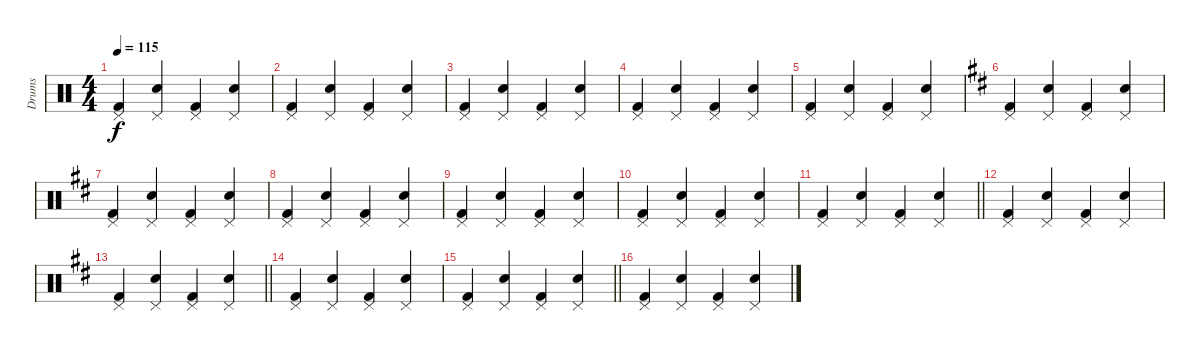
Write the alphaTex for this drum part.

\track ("Drums" "Drums") {instrument percussion}
\staff {score}
\articulation defaults
\ts (4 4)
\tempo 115
\clef neutral
\ks c
("Kick (hit) 2" "Pedal Hi-Hat (hit)").4{dy f} ("Snare (hit) 2" "Pedal Hi-Hat (hit)").4 ("Kick (hit) 2" "Pedal Hi-Hat (hit)").4 ("Snare (hit) 2" "Pedal Hi-Hat (hit)").4 |
("Kick (hit) 2" "Pedal Hi-Hat (hit)").4 ("Snare (hit) 2" "Pedal Hi-Hat (hit)").4 ("Kick (hit) 2" "Pedal Hi-Hat (hit)").4 ("Snare (hit) 2" "Pedal Hi-Hat (hit)").4 |
("Kick (hit) 2" "Pedal Hi-Hat (hit)").4 ("Snare (hit) 2" "Pedal Hi-Hat (hit)").4 ("Kick (hit) 2" "Pedal Hi-Hat (hit)").4 ("Snare (hit) 2" "Pedal Hi-Hat (hit)").4 |
("Kick (hit) 2" "Pedal Hi-Hat (hit)").4 ("Snare (hit) 2" "Pedal Hi-Hat (hit)").4 ("Kick (hit) 2" "Pedal Hi-Hat (hit)").4 ("Snare (hit) 2" "Pedal Hi-Hat (hit)").4 |
("Kick (hit) 2" "Pedal Hi-Hat (hit)").4 ("Snare (hit) 2" "Pedal Hi-Hat (hit)").4 ("Kick (hit) 2" "Pedal Hi-Hat (hit)").4 ("Snare (hit) 2" "Pedal Hi-Hat (hit)").4 |
\ks d
("Kick (hit) 2" "Pedal Hi-Hat (hit)").4 ("Snare (hit) 2" "Pedal Hi-Hat (hit)").4 ("Kick (hit) 2" "Pedal Hi-Hat (hit)").4 ("Snare (hit) 2" "Pedal Hi-Hat (hit)").4 |
("Kick (hit) 2" "Pedal Hi-Hat (hit)").4 ("Snare (hit) 2" "Pedal Hi-Hat (hit)").4 ("Kick (hit) 2" "Pedal Hi-Hat (hit)").4 ("Snare (hit) 2" "Pedal Hi-Hat (hit)").4 |
("Kick (hit) 2" "Pedal Hi-Hat (hit)").4 ("Snare (hit) 2" "Pedal Hi-Hat (hit)").4 ("Kick (hit) 2" "Pedal Hi-Hat (hit)").4 ("Snare (hit) 2" "Pedal Hi-Hat (hit)").4 |
("Kick (hit) 2" "Pedal Hi-Hat (hit)").4 ("Snare (hit) 2" "Pedal Hi-Hat (hit)").4 ("Kick (hit) 2" "Pedal Hi-Hat (hit)").4 ("Snare (hit) 2" "Pedal Hi-Hat (hit)").4 |
("Kick (hit) 2" "Pedal Hi-Hat (hit)").4 ("Snare (hit) 2" "Pedal Hi-Hat (hit)").4 ("Kick (hit) 2" "Pedal Hi-Hat (hit)").4 ("Snare (hit) 2" "Pedal Hi-Hat (hit)").4 |
\barLineRight lightlight
("Kick (hit) 2" "Pedal Hi-Hat (hit)").4 ("Snare (hit) 2" "Pedal Hi-Hat (hit)").4 ("Kick (hit) 2" "Pedal Hi-Hat (hit)").4 ("Snare (hit) 2" "Pedal Hi-Hat (hit)").4 |
("Kick (hit) 2" "Pedal Hi-Hat (hit)").4 ("Snare (hit) 2" "Pedal Hi-Hat (hit)").4 ("Kick (hit) 2" "Pedal Hi-Hat (hit)").4 ("Snare (hit) 2" "Pedal Hi-Hat (hit)").4 |
\barLineRight lightlight
("Kick (hit) 2" "Pedal Hi-Hat (hit)").4 ("Snare (hit) 2" "Pedal Hi-Hat (hit)").4 ("Kick (hit) 2" "Pedal Hi-Hat (hit)").4 ("Snare (hit) 2" "Pedal Hi-Hat (hit)").4 |
("Kick (hit) 2" "Pedal Hi-Hat (hit)").4 ("Snare (hit) 2" "Pedal Hi-Hat (hit)").4 ("Kick (hit) 2" "Pedal Hi-Hat (hit)").4 ("Snare (hit) 2" "Pedal Hi-Hat (hit)").4 |
\barLineRight lightlight
("Kick (hit) 2" "Pedal Hi-Hat (hit)").4 ("Snare (hit) 2" "Pedal Hi-Hat (hit)").4 ("Kick (hit) 2" "Pedal Hi-Hat (hit)").4 ("Snare (hit) 2" "Pedal Hi-Hat (hit)").4 |
("Kick (hit) 2" "Pedal Hi-Hat (hit)").4 ("Snare (hit) 2" "Pedal Hi-Hat (hit)").4 ("Kick (hit) 2" "Pedal Hi-Hat (hit)").4 ("Snare (hit) 2" "Pedal Hi-Hat (hit)").4
